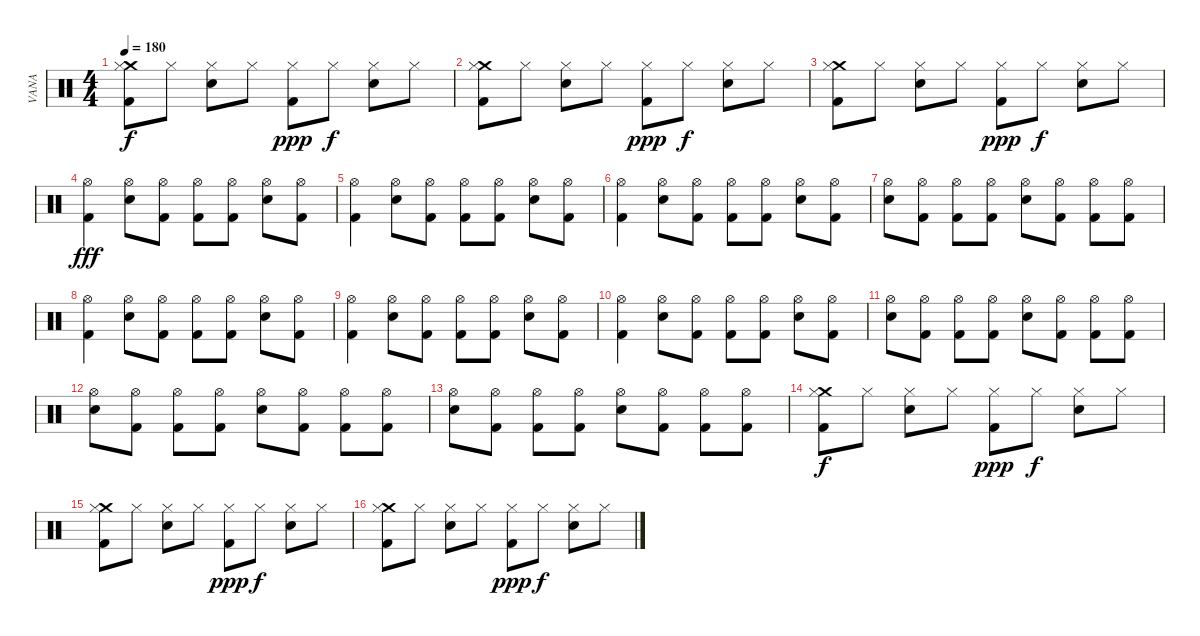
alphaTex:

\track ("VANA" "VANA") {instrument percussion}
\staff {score}
\articulation defaults
\ts (4 4)
\tempo 180
\clef neutral
\ks c
("Crash medium (hit)" "Hi-Hat (closed)" "Kick (hit) 2").8{dy f} "Hi-Hat (closed)".8 ("Hi-Hat (closed)" "Electric Snare (hit)").8 "Hi-Hat (closed)".8 ("Hi-Hat (closed)" "Kick (hit) 2").8{dy ppp} "Hi-Hat (closed)".8{dy f} ("Hi-Hat (closed)" "Electric Snare (hit)").8 "Hi-Hat (closed)".8 |
("Crash medium (hit)" "Hi-Hat (closed)" "Kick (hit) 2").8 "Hi-Hat (closed)".8 ("Hi-Hat (closed)" "Electric Snare (hit)").8 "Hi-Hat (closed)".8 ("Hi-Hat (closed)" "Kick (hit) 2").8{dy ppp} "Hi-Hat (closed)".8{dy f} ("Hi-Hat (closed)" "Electric Snare (hit)").8 "Hi-Hat (closed)".8 |
("Crash medium (hit)" "Hi-Hat (closed)" "Kick (hit) 2").8 "Hi-Hat (closed)".8 ("Hi-Hat (closed)" "Electric Snare (hit)").8 "Hi-Hat (closed)".8 ("Hi-Hat (closed)" "Kick (hit) 2").8{dy ppp} "Hi-Hat (closed)".8{dy f} ("Hi-Hat (closed)" "Electric Snare (hit)").8 "Hi-Hat (closed)".8 |
("Kick (hit) 2" "Hi-Hat (open)").4{dy fff} ("Hi-Hat (open)" "Electric Snare (hit)").8 ("Hi-Hat (open)" "Kick (hit) 2").8 ("Hi-Hat (open)" "Kick (hit) 2").8 ("Hi-Hat (open)" "Kick (hit) 2").8 ("Hi-Hat (open)" "Electric Snare (hit)").8 ("Hi-Hat (open)" "Kick (hit) 2").8 |
("Kick (hit) 2" "Hi-Hat (open)").4 ("Hi-Hat (open)" "Electric Snare (hit)").8 ("Hi-Hat (open)" "Kick (hit) 2").8 ("Hi-Hat (open)" "Kick (hit) 2").8 ("Hi-Hat (open)" "Kick (hit) 2").8 ("Hi-Hat (open)" "Electric Snare (hit)").8 ("Hi-Hat (open)" "Kick (hit) 2").8 |
("Kick (hit) 2" "Hi-Hat (open)").4 ("Hi-Hat (open)" "Electric Snare (hit)").8 ("Hi-Hat (open)" "Kick (hit) 2").8 ("Hi-Hat (open)" "Kick (hit) 2").8 ("Hi-Hat (open)" "Kick (hit) 2").8 ("Hi-Hat (open)" "Electric Snare (hit)").8 ("Hi-Hat (open)" "Kick (hit) 2").8 |
("Hi-Hat (open)" "Electric Snare (hit)").8 ("Hi-Hat (open)" "Kick (hit) 2").8 ("Hi-Hat (open)" "Kick (hit) 2").8 ("Hi-Hat (open)" "Kick (hit) 2").8 ("Hi-Hat (open)" "Electric Snare (hit)").8 ("Hi-Hat (open)" "Kick (hit) 2").8 ("Hi-Hat (open)" "Kick (hit) 2").8 ("Hi-Hat (open)" "Kick (hit) 2").8 |
("Kick (hit) 2" "Hi-Hat (open)").4 ("Hi-Hat (open)" "Electric Snare (hit)").8 ("Hi-Hat (open)" "Kick (hit) 2").8 ("Hi-Hat (open)" "Kick (hit) 2").8 ("Hi-Hat (open)" "Kick (hit) 2").8 ("Hi-Hat (open)" "Electric Snare (hit)").8 ("Hi-Hat (open)" "Kick (hit) 2").8 |
("Kick (hit) 2" "Hi-Hat (open)").4 ("Hi-Hat (open)" "Electric Snare (hit)").8 ("Hi-Hat (open)" "Kick (hit) 2").8 ("Hi-Hat (open)" "Kick (hit) 2").8 ("Hi-Hat (open)" "Kick (hit) 2").8 ("Hi-Hat (open)" "Electric Snare (hit)").8 ("Hi-Hat (open)" "Kick (hit) 2").8 |
("Kick (hit) 2" "Hi-Hat (open)").4 ("Hi-Hat (open)" "Electric Snare (hit)").8 ("Hi-Hat (open)" "Kick (hit) 2").8 ("Hi-Hat (open)" "Kick (hit) 2").8 ("Hi-Hat (open)" "Kick (hit) 2").8 ("Hi-Hat (open)" "Electric Snare (hit)").8 ("Hi-Hat (open)" "Kick (hit) 2").8 |
("Hi-Hat (open)" "Electric Snare (hit)").8 ("Hi-Hat (open)" "Kick (hit) 2").8 ("Hi-Hat (open)" "Kick (hit) 2").8 ("Hi-Hat (open)" "Kick (hit) 2").8 ("Hi-Hat (open)" "Electric Snare (hit)").8 ("Hi-Hat (open)" "Kick (hit) 2").8 ("Hi-Hat (open)" "Kick (hit) 2").8 ("Hi-Hat (open)" "Kick (hit) 2").8 |
("Hi-Hat (open)" "Electric Snare (hit)").8 ("Hi-Hat (open)" "Kick (hit) 2").8 ("Hi-Hat (open)" "Kick (hit) 2").8 ("Hi-Hat (open)" "Kick (hit) 2").8 ("Hi-Hat (open)" "Electric Snare (hit)").8 ("Hi-Hat (open)" "Kick (hit) 2").8 ("Hi-Hat (open)" "Kick (hit) 2").8 ("Hi-Hat (open)" "Kick (hit) 2").8 |
("Hi-Hat (open)" "Electric Snare (hit)").8 ("Hi-Hat (open)" "Kick (hit) 2").8 ("Hi-Hat (open)" "Kick (hit) 2").8 ("Hi-Hat (open)" "Kick (hit) 2").8 ("Hi-Hat (open)" "Electric Snare (hit)").8 ("Hi-Hat (open)" "Kick (hit) 2").8 ("Hi-Hat (open)" "Kick (hit) 2").8 ("Hi-Hat (open)" "Kick (hit) 2").8 |
("Crash medium (hit)" "Hi-Hat (closed)" "Kick (hit) 2").8{dy f} "Hi-Hat (closed)".8 ("Hi-Hat (closed)" "Electric Snare (hit)").8 "Hi-Hat (closed)".8 ("Hi-Hat (closed)" "Kick (hit) 2").8{dy ppp} "Hi-Hat (closed)".8{dy f} ("Hi-Hat (closed)" "Electric Snare (hit)").8 "Hi-Hat (closed)".8 |
("Crash medium (hit)" "Hi-Hat (closed)" "Kick (hit) 2").8 "Hi-Hat (closed)".8 ("Hi-Hat (closed)" "Electric Snare (hit)").8 "Hi-Hat (closed)".8 ("Hi-Hat (closed)" "Kick (hit) 2").8{dy ppp} "Hi-Hat (closed)".8{dy f} ("Hi-Hat (closed)" "Electric Snare (hit)").8 "Hi-Hat (closed)".8 |
("Crash medium (hit)" "Hi-Hat (closed)" "Kick (hit) 2").8 "Hi-Hat (closed)".8 ("Hi-Hat (closed)" "Electric Snare (hit)").8 "Hi-Hat (closed)".8 ("Hi-Hat (closed)" "Kick (hit) 2").8{dy ppp} "Hi-Hat (closed)".8{dy f} ("Hi-Hat (closed)" "Electric Snare (hit)").8 "Hi-Hat (closed)".8
